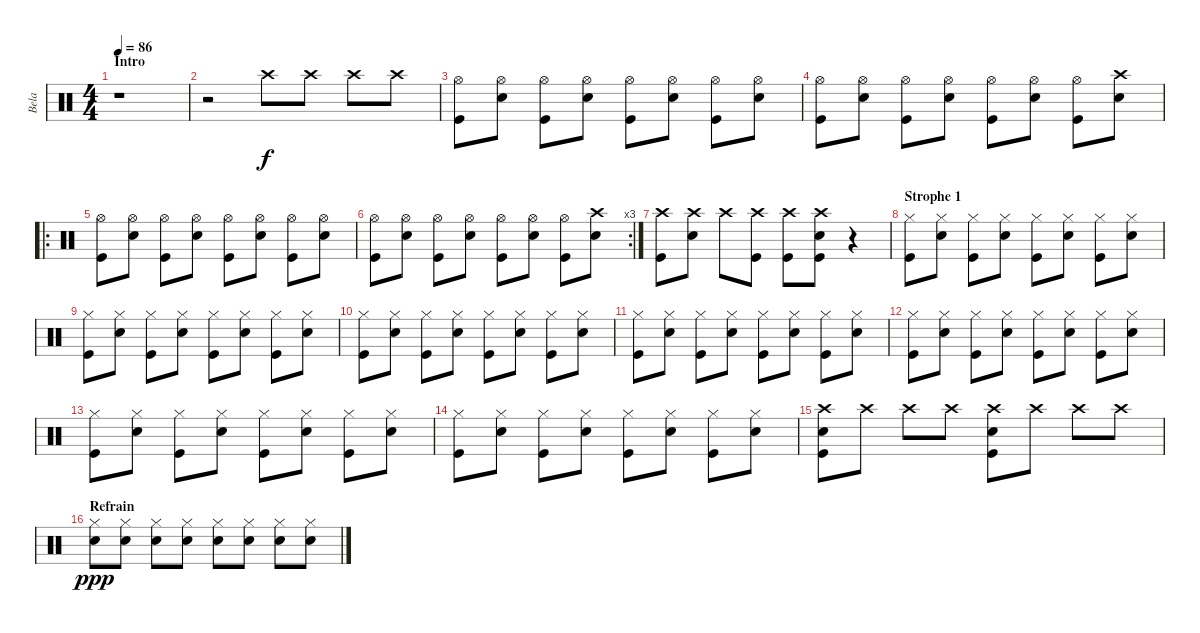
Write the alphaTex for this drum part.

\track ("Bela" "Bela") {instrument percussion}
\staff {score}
\articulation defaults
\ts (4 4)
\section ("" "Intro")
\tempo 86
\clef neutral
\ks c
r.1{dy f} |
r.2 "Crash high (hit)".8 "Crash high (hit)".8 "Crash high (hit)".8 "Crash high (hit)".8 |
("Hi-Hat (open)" "Kick (hit)").8 ("Hi-Hat (open)" "Snare (hit) 2").8 ("Hi-Hat (open)" "Kick (hit)").8 ("Hi-Hat (open)" "Snare (hit) 2").8 ("Hi-Hat (open)" "Kick (hit)").8 ("Hi-Hat (open)" "Snare (hit) 2").8 ("Hi-Hat (open)" "Kick (hit)").8 ("Hi-Hat (open)" "Snare (hit) 2").8 |
("Hi-Hat (open)" "Kick (hit)").8 ("Hi-Hat (open)" "Snare (hit) 2").8 ("Hi-Hat (open)" "Kick (hit)").8 ("Hi-Hat (open)" "Snare (hit) 2").8 ("Hi-Hat (open)" "Kick (hit)").8 ("Hi-Hat (open)" "Snare (hit) 2").8 ("Hi-Hat (open)" "Kick (hit)").8 ("Crash high (hit)" "Snare (hit) 2").8 |
\ro
("Hi-Hat (open)" "Kick (hit)").8 ("Hi-Hat (open)" "Snare (hit) 2").8 ("Hi-Hat (open)" "Kick (hit)").8 ("Hi-Hat (open)" "Snare (hit) 2").8 ("Hi-Hat (open)" "Kick (hit)").8 ("Hi-Hat (open)" "Snare (hit) 2").8 ("Hi-Hat (open)" "Kick (hit)").8 ("Hi-Hat (open)" "Snare (hit) 2").8 |
\rc 3
("Hi-Hat (open)" "Kick (hit)").8 ("Hi-Hat (open)" "Snare (hit) 2").8 ("Hi-Hat (open)" "Kick (hit)").8 ("Hi-Hat (open)" "Snare (hit) 2").8 ("Hi-Hat (open)" "Kick (hit)").8 ("Hi-Hat (open)" "Snare (hit) 2").8 ("Hi-Hat (open)" "Kick (hit)").8 ("Crash high (hit)" "Snare (hit) 2").8 |
("Crash high (hit)" "Kick (hit)").8 ("Crash high (hit)" "Snare (hit) 2").8 "Crash high (hit)".8 ("Crash high (hit)" "Kick (hit)").8 ("Crash high (hit)" "Kick (hit)").8 ("Crash high (hit)" "Snare (hit) 2" "Kick (hit)").8 r.4 |
\section ("" "Strophe 1")
("Hi-Hat (closed)" "Kick (hit)").8 ("Hi-Hat (closed)" "Snare (hit) 2").8 ("Hi-Hat (closed)" "Kick (hit)").8 ("Hi-Hat (closed)" "Snare (hit) 2").8 ("Hi-Hat (closed)" "Kick (hit)").8 ("Hi-Hat (closed)" "Snare (hit) 2").8 ("Hi-Hat (closed)" "Kick (hit)").8 ("Hi-Hat (closed)" "Snare (hit) 2").8 |
("Hi-Hat (closed)" "Kick (hit)").8 ("Hi-Hat (closed)" "Snare (hit) 2").8 ("Hi-Hat (closed)" "Kick (hit)").8 ("Hi-Hat (closed)" "Snare (hit) 2").8 ("Hi-Hat (closed)" "Kick (hit)").8 ("Hi-Hat (closed)" "Snare (hit) 2").8 ("Hi-Hat (closed)" "Kick (hit)").8 ("Hi-Hat (closed)" "Snare (hit) 2").8 |
("Hi-Hat (closed)" "Kick (hit)").8 ("Hi-Hat (closed)" "Snare (hit) 2").8 ("Hi-Hat (closed)" "Kick (hit)").8 ("Hi-Hat (closed)" "Snare (hit) 2").8 ("Hi-Hat (closed)" "Kick (hit)").8 ("Hi-Hat (closed)" "Snare (hit) 2").8 ("Hi-Hat (closed)" "Kick (hit)").8 ("Hi-Hat (closed)" "Snare (hit) 2").8 |
("Hi-Hat (closed)" "Kick (hit)").8 ("Hi-Hat (closed)" "Snare (hit) 2").8 ("Hi-Hat (closed)" "Kick (hit)").8 ("Hi-Hat (closed)" "Snare (hit) 2").8 ("Hi-Hat (closed)" "Kick (hit)").8 ("Hi-Hat (closed)" "Snare (hit) 2").8 ("Hi-Hat (closed)" "Kick (hit)").8 ("Hi-Hat (closed)" "Snare (hit) 2").8 |
("Hi-Hat (closed)" "Kick (hit)").8 ("Hi-Hat (closed)" "Snare (hit) 2").8 ("Hi-Hat (closed)" "Kick (hit)").8 ("Hi-Hat (closed)" "Snare (hit) 2").8 ("Hi-Hat (closed)" "Kick (hit)").8 ("Hi-Hat (closed)" "Snare (hit) 2").8 ("Hi-Hat (closed)" "Kick (hit)").8 ("Hi-Hat (closed)" "Snare (hit) 2").8 |
("Hi-Hat (closed)" "Kick (hit)").8 ("Hi-Hat (closed)" "Snare (hit) 2").8 ("Hi-Hat (closed)" "Kick (hit)").8 ("Hi-Hat (closed)" "Snare (hit) 2").8 ("Hi-Hat (closed)" "Kick (hit)").8 ("Hi-Hat (closed)" "Snare (hit) 2").8 ("Hi-Hat (closed)" "Kick (hit)").8 ("Hi-Hat (closed)" "Snare (hit) 2").8 |
("Hi-Hat (closed)" "Kick (hit)").8 ("Hi-Hat (closed)" "Snare (hit) 2").8 ("Hi-Hat (closed)" "Kick (hit)").8 ("Hi-Hat (closed)" "Snare (hit) 2").8 ("Hi-Hat (closed)" "Kick (hit)").8 ("Hi-Hat (closed)" "Snare (hit) 2").8 ("Hi-Hat (closed)" "Kick (hit)").8 ("Hi-Hat (closed)" "Snare (hit) 2").8 |
("Crash high (hit)" "Snare (hit) 2" "Kick (hit)").8 "Crash high (hit)".8 "Crash high (hit)".8 "Crash high (hit)".8 ("Crash high (hit)" "Snare (hit) 2" "Kick (hit)").8 "Crash high (hit)".8 "Crash high (hit)".8 "Crash high (hit)".8 |
\section ("" "Refrain")
("Hi-Hat (closed)" "Snare (hit) 2").8{dy ppp} ("Hi-Hat (closed)" "Snare (hit) 2").8 ("Hi-Hat (closed)" "Snare (hit) 2").8 ("Hi-Hat (closed)" "Snare (hit) 2").8 ("Hi-Hat (closed)" "Snare (hit) 2").8 ("Hi-Hat (closed)" "Snare (hit) 2").8 ("Hi-Hat (closed)" "Snare (hit) 2").8 ("Hi-Hat (closed)" "Snare (hit) 2").8
